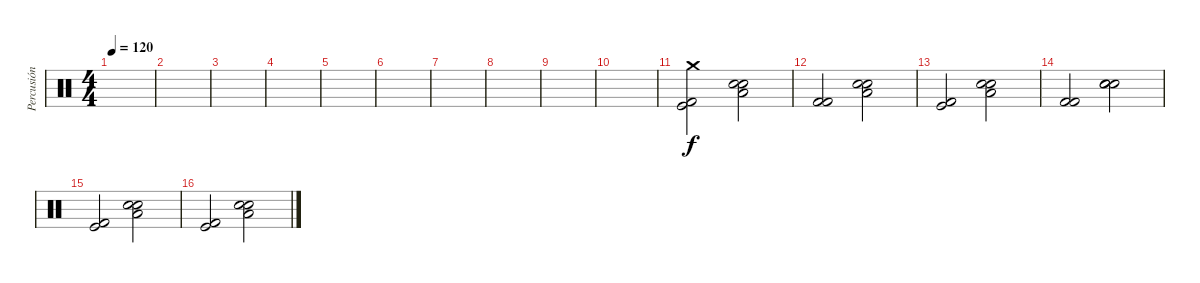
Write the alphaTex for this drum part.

\track ("Percusión" "Percusión") {instrument percussion}
\staff {score}
\articulation defaults
\ts (4 4)
\tempo 120
\clef neutral
\ks c
|
|
|
|
|
|
|
|
|
|
("Crash medium (hit)" "Kick (hit) 2" "Kick (hit)").2 ("Electric Snare (hit)" "Snare (hit) 2" "Low Floor Tom (hit)").2 |
("Kick (hit) 2" "Kick (hit) 2").2 ("Electric Snare (hit)" "Snare (hit) 2" "Low Floor Tom (hit)").2 |
("Kick (hit) 2" "Kick (hit)").2 ("Snare (hit) 2" "Electric Snare (hit)" "Low Floor Tom (hit)").2 |
("Kick (hit) 2" "Kick (hit) 2").2 ("Electric Snare (hit)" "Electric Snare (hit)" "Snare (hit) 2").2 |
("Kick (hit) 2" "Kick (hit)").2 ("Electric Snare (hit)" "Snare (hit) 2" "Low Floor Tom (hit)").2 |
("Kick (hit) 2" "Kick (hit)").2 ("Electric Snare (hit)" "Snare (hit) 2" "Low Floor Tom (hit)").2
